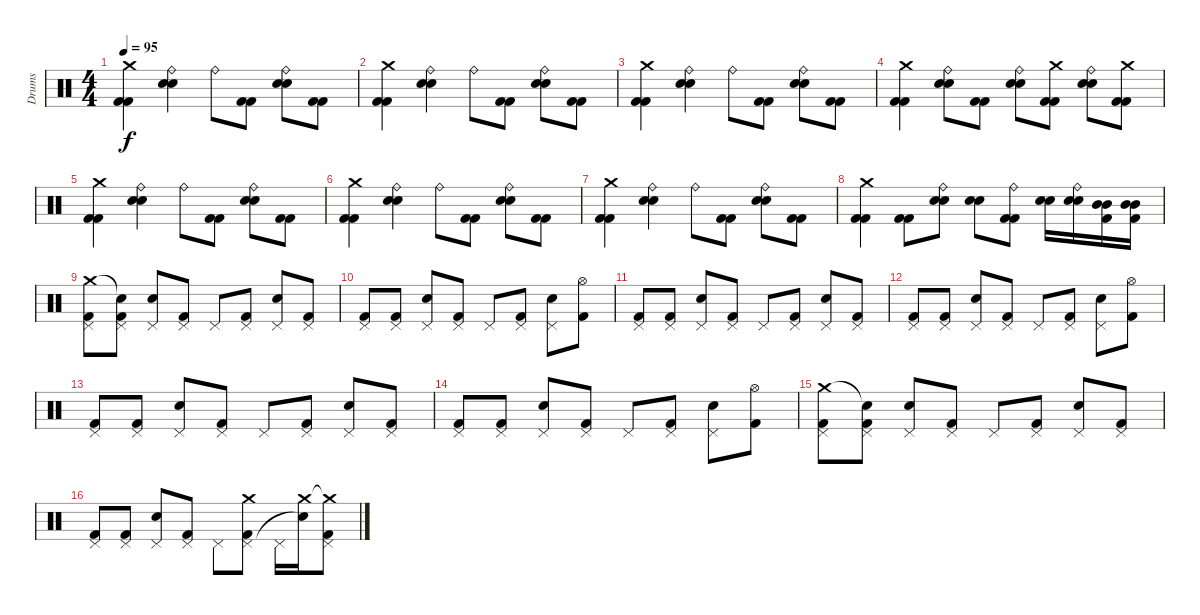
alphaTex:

\track ("Drums" "Drums") {instrument percussion}
\staff {score}
\articulation defaults
\ts (4 4)
\tempo 95
\clef neutral
\ks c
("Crash medium (hit)" "Kick (hit) 2" "Kick (hit) 2").4{dy f} ("Ride (bell)" "Electric Snare (hit)" "Electric Snare (hit)").4 "Ride (bell)".8 ("Kick (hit) 2" "Kick (hit) 2").8 ("Ride (bell)" "Electric Snare (hit)" "Electric Snare (hit)").8 ("Kick (hit) 2" "Kick (hit) 2").8 |
("Crash medium (hit)" "Kick (hit) 2" "Kick (hit) 2").4 ("Ride (bell)" "Electric Snare (hit)" "Electric Snare (hit)").4 "Ride (bell)".8 ("Kick (hit) 2" "Kick (hit) 2").8 ("Ride (bell)" "Electric Snare (hit)" "Electric Snare (hit)").8 ("Kick (hit) 2" "Kick (hit) 2").8 |
("Crash medium (hit)" "Kick (hit) 2" "Kick (hit) 2").4 ("Ride (bell)" "Electric Snare (hit)" "Electric Snare (hit)").4 "Ride (bell)".8 ("Kick (hit) 2" "Kick (hit) 2").8 ("Ride (bell)" "Electric Snare (hit)" "Electric Snare (hit)").8 ("Kick (hit) 2" "Kick (hit) 2").8 |
("Crash medium (hit)" "Kick (hit) 2" "Kick (hit) 2").4 ("Ride (bell)" "Electric Snare (hit)" "Electric Snare (hit)").8 ("Kick (hit) 2" "Kick (hit) 2").8 ("Ride (bell)" "Electric Snare (hit)" "Electric Snare (hit)").8 ("Crash medium (hit)" "Kick (hit) 2" "Kick (hit) 2").8 ("Ride (bell)" "Electric Snare (hit)" "Electric Snare (hit)").8 ("Crash medium (hit)" "Kick (hit) 2" "Kick (hit) 2").8 |
("Crash medium (hit)" "Kick (hit) 2" "Kick (hit) 2").4 ("Ride (bell)" "Electric Snare (hit)" "Electric Snare (hit)").4 "Ride (bell)".8 ("Kick (hit) 2" "Kick (hit) 2").8 ("Ride (bell)" "Electric Snare (hit)" "Electric Snare (hit)").8 ("Kick (hit) 2" "Kick (hit) 2").8 |
("Crash medium (hit)" "Kick (hit) 2" "Kick (hit) 2").4 ("Ride (bell)" "Electric Snare (hit)" "Electric Snare (hit)").4 "Ride (bell)".8 ("Kick (hit) 2" "Kick (hit) 2").8 ("Ride (bell)" "Electric Snare (hit)" "Electric Snare (hit)").8 ("Kick (hit) 2" "Kick (hit) 2").8 |
("Crash medium (hit)" "Kick (hit) 2" "Kick (hit) 2").4 ("Ride (bell)" "Electric Snare (hit)" "Electric Snare (hit)").4 "Ride (bell)".8 ("Kick (hit) 2" "Kick (hit) 2").8 ("Ride (bell)" "Electric Snare (hit)" "Electric Snare (hit)").8 ("Kick (hit) 2" "Kick (hit) 2").8 |
("Crash medium (hit)" "Kick (hit) 2" "Kick (hit) 2").4 ("Kick (hit) 2" "Kick (hit) 2").8 ("Ride (bell)" "Electric Snare (hit)" "Electric Snare (hit)").8 ("Electric Snare (hit)" "Electric Snare (hit)").8 ("Ride (bell)" "Kick (hit) 2" "Kick (hit) 2").8 ("Electric Snare (hit)" "Electric Snare (hit)").16 ("Ride (bell)" "Electric Snare (hit)" "Electric Snare (hit)").16 ("Mid Tom (hit)" "Mid Tom (hit)" "Kick (hit) 2").16 ("Mid Tom (hit)" "Mid Tom (hit)" "Kick (hit) 2").16 |
("Crash medium (hit)" "Pedal Hi-Hat (hit)" "Kick (hit) 2").8 ("Snare (hit)"{t} "Pedal Hi-Hat (hit)" "Kick (hit) 2").8 ("Pedal Hi-Hat (hit)" "Snare (hit) 2").8 ("Pedal Hi-Hat (hit)" "Kick (hit) 2").8 "Pedal Hi-Hat (hit)".8 ("Pedal Hi-Hat (hit)" "Kick (hit) 2").8 ("Pedal Hi-Hat (hit)" "Snare (hit) 2").8 ("Pedal Hi-Hat (hit)" "Kick (hit) 2").8 |
("Pedal Hi-Hat (hit)" "Kick (hit) 2").8 ("Pedal Hi-Hat (hit)" "Kick (hit) 2").8 ("Pedal Hi-Hat (hit)" "Snare (hit) 2").8 ("Pedal Hi-Hat (hit)" "Kick (hit) 2").8 "Pedal Hi-Hat (hit)".8 ("Pedal Hi-Hat (hit)" "Kick (hit) 2").8 ("Pedal Hi-Hat (hit)" "Snare (hit) 2").8 ("Hi-Hat (open)" "Kick (hit) 2").8 |
("Pedal Hi-Hat (hit)" "Kick (hit) 2").8 ("Pedal Hi-Hat (hit)" "Kick (hit) 2").8 ("Pedal Hi-Hat (hit)" "Snare (hit) 2").8 ("Pedal Hi-Hat (hit)" "Kick (hit) 2").8 "Pedal Hi-Hat (hit)".8 ("Pedal Hi-Hat (hit)" "Kick (hit) 2").8 ("Pedal Hi-Hat (hit)" "Snare (hit) 2").8 ("Pedal Hi-Hat (hit)" "Kick (hit) 2").8 |
("Pedal Hi-Hat (hit)" "Kick (hit) 2").8 ("Pedal Hi-Hat (hit)" "Kick (hit) 2").8 ("Pedal Hi-Hat (hit)" "Snare (hit) 2").8 ("Pedal Hi-Hat (hit)" "Kick (hit) 2").8 "Pedal Hi-Hat (hit)".8 ("Pedal Hi-Hat (hit)" "Kick (hit) 2").8 ("Pedal Hi-Hat (hit)" "Snare (hit) 2").8 ("Hi-Hat (open)" "Kick (hit) 2").8 |
("Pedal Hi-Hat (hit)" "Kick (hit) 2").8 ("Pedal Hi-Hat (hit)" "Kick (hit) 2").8 ("Pedal Hi-Hat (hit)" "Snare (hit) 2").8 ("Pedal Hi-Hat (hit)" "Kick (hit) 2").8 "Pedal Hi-Hat (hit)".8 ("Pedal Hi-Hat (hit)" "Kick (hit) 2").8 ("Pedal Hi-Hat (hit)" "Snare (hit) 2").8 ("Pedal Hi-Hat (hit)" "Kick (hit) 2").8 |
("Pedal Hi-Hat (hit)" "Kick (hit) 2").8 ("Pedal Hi-Hat (hit)" "Kick (hit) 2").8 ("Pedal Hi-Hat (hit)" "Snare (hit) 2").8 ("Pedal Hi-Hat (hit)" "Kick (hit) 2").8 "Pedal Hi-Hat (hit)".8 ("Pedal Hi-Hat (hit)" "Kick (hit) 2").8 ("Pedal Hi-Hat (hit)" "Snare (hit) 2").8 ("Hi-Hat (open)" "Kick (hit) 2").8 |
("Crash medium (hit)" "Pedal Hi-Hat (hit)" "Kick (hit) 2").8 ("Snare (hit)"{t} "Pedal Hi-Hat (hit)" "Kick (hit) 2").8 ("Pedal Hi-Hat (hit)" "Snare (hit) 2").8 ("Pedal Hi-Hat (hit)" "Kick (hit) 2").8 "Pedal Hi-Hat (hit)".8 ("Pedal Hi-Hat (hit)" "Kick (hit) 2").8 ("Pedal Hi-Hat (hit)" "Snare (hit) 2").8 ("Pedal Hi-Hat (hit)" "Kick (hit) 2").8 |
("Pedal Hi-Hat (hit)" "Kick (hit) 2").8 ("Pedal Hi-Hat (hit)" "Kick (hit) 2").8 ("Pedal Hi-Hat (hit)" "Snare (hit) 2").8 ("Pedal Hi-Hat (hit)" "Kick (hit) 2").8 "Pedal Hi-Hat (hit)".8 ("Crash medium (hit)" "Pedal Hi-Hat (hit)" "Kick (hit) 2").8 "Pedal Hi-Hat (hit)".16 ("Crash medium (hit)" "Snare (hit)"{t}).16 ("Crash medium (hit)"{t} "Pedal Hi-Hat (hit)" "Kick (hit) 2").8
